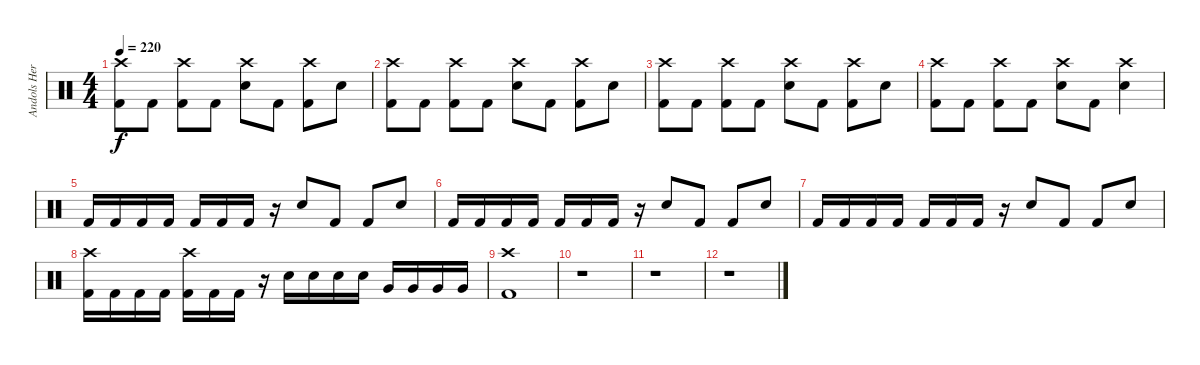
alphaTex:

\track ("Andols Herrick - Drums" "Andols Her") {instrument percussion}
\staff {score}
\articulation defaults
\ts (4 4)
\tempo 220
\clef neutral
\ks c
("Crash high (hit)" "Kick (hit) 2").8{dy f} "Kick (hit) 2".8 ("Crash high (hit)" "Kick (hit) 2").8 "Kick (hit) 2".8 ("Crash high (hit)" "Snare (hit) 2").8 "Kick (hit) 2".8 ("Crash high (hit)" "Kick (hit) 2").8 "Snare (hit) 2".8 |
("Crash high (hit)" "Kick (hit) 2").8 "Kick (hit) 2".8 ("Crash high (hit)" "Kick (hit) 2").8 "Kick (hit) 2".8 ("Crash high (hit)" "Snare (hit) 2").8 "Kick (hit) 2".8 ("Crash high (hit)" "Kick (hit) 2").8 "Snare (hit) 2".8 |
("Crash high (hit)" "Kick (hit) 2").8 "Kick (hit) 2".8 ("Crash high (hit)" "Kick (hit) 2").8 "Kick (hit) 2".8 ("Crash high (hit)" "Snare (hit) 2").8 "Kick (hit) 2".8 ("Crash high (hit)" "Kick (hit) 2").8 "Snare (hit) 2".8 |
("Crash high (hit)" "Kick (hit) 2").8 "Kick (hit) 2".8 ("Crash high (hit)" "Kick (hit) 2").8 "Kick (hit) 2".8 ("Crash high (hit)" "Snare (hit) 2").8 "Kick (hit) 2".8 ("Crash high (hit)" "Snare (hit) 2").4 |
"Kick (hit) 2".16 "Kick (hit) 2".16 "Kick (hit) 2".16 "Kick (hit) 2".16 "Kick (hit) 2".16 "Kick (hit) 2".16 "Kick (hit) 2".16 r.16 "Snare (hit) 2".8 "Kick (hit) 2".8 "Kick (hit) 2".8 "Snare (hit) 2".8 |
"Kick (hit) 2".16 "Kick (hit) 2".16 "Kick (hit) 2".16 "Kick (hit) 2".16 "Kick (hit) 2".16 "Kick (hit) 2".16 "Kick (hit) 2".16 r.16 "Snare (hit) 2".8 "Kick (hit) 2".8 "Kick (hit) 2".8 "Snare (hit) 2".8 |
"Kick (hit) 2".16 "Kick (hit) 2".16 "Kick (hit) 2".16 "Kick (hit) 2".16 "Kick (hit) 2".16 "Kick (hit) 2".16 "Kick (hit) 2".16 r.16 "Snare (hit) 2".8 "Kick (hit) 2".8 "Kick (hit) 2".8 "Snare (hit) 2".8 |
("Crash high (hit)" "Kick (hit) 2").16 "Kick (hit) 2".16 "Kick (hit) 2".16 "Kick (hit) 2".16 ("Crash high (hit)" "Kick (hit) 2").16 "Kick (hit) 2".16 "Kick (hit) 2".16 r.16 "Snare (hit) 2".16 "Snare (hit) 2".16 "Snare (hit) 2".16 "Snare (hit) 2".16 "Very Low Tom (hit)".16 "Very Low Tom (hit)".16 "Very Low Tom (hit)".16 "Very Low Tom (hit)".16 |
("Crash high (hit)" "Kick (hit) 2").1 |
r.1 |
r.1 |
r.1
